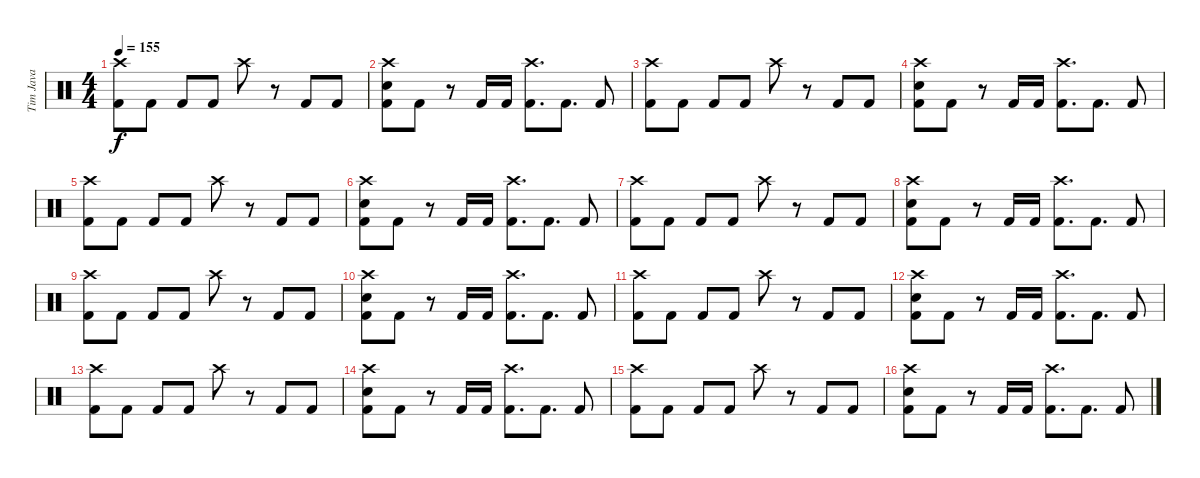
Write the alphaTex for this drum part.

\track ("Tim Java" "Tim Java") {instrument percussion}
\staff {score}
\articulation defaults
\ts (4 4)
\tempo 155
\clef neutral
\ks c
("Crash high (hit)" "Kick (hit) 2").8{dy f} "Kick (hit) 2".8 "Kick (hit) 2".8 "Kick (hit) 2".8 "Crash high (hit)".8 r.8 "Kick (hit) 2".8 "Kick (hit) 2".8 |
("Crash high (hit)" "Electric Snare (hit)" "Kick (hit) 2").8 "Kick (hit) 2".8 r.8 "Kick (hit) 2".16 "Kick (hit) 2".16 ("Crash high (hit)" "Kick (hit) 2").8{d} "Kick (hit) 2".8{d} "Kick (hit) 2".8 |
("Crash high (hit)" "Kick (hit) 2").8 "Kick (hit) 2".8 "Kick (hit) 2".8 "Kick (hit) 2".8 "Crash high (hit)".8 r.8 "Kick (hit) 2".8 "Kick (hit) 2".8 |
("Crash high (hit)" "Electric Snare (hit)" "Kick (hit) 2").8 "Kick (hit) 2".8 r.8 "Kick (hit) 2".16 "Kick (hit) 2".16 ("Crash high (hit)" "Kick (hit) 2").8{d} "Kick (hit) 2".8{d} "Kick (hit) 2".8 |
("Crash high (hit)" "Kick (hit) 2").8 "Kick (hit) 2".8 "Kick (hit) 2".8 "Kick (hit) 2".8 "Crash high (hit)".8 r.8 "Kick (hit) 2".8 "Kick (hit) 2".8 |
("Crash high (hit)" "Electric Snare (hit)" "Kick (hit) 2").8 "Kick (hit) 2".8 r.8 "Kick (hit) 2".16 "Kick (hit) 2".16 ("Crash high (hit)" "Kick (hit) 2").8{d} "Kick (hit) 2".8{d} "Kick (hit) 2".8 |
("Crash high (hit)" "Kick (hit) 2").8 "Kick (hit) 2".8 "Kick (hit) 2".8 "Kick (hit) 2".8 "Crash high (hit)".8 r.8 "Kick (hit) 2".8 "Kick (hit) 2".8 |
("Crash high (hit)" "Electric Snare (hit)" "Kick (hit) 2").8 "Kick (hit) 2".8 r.8 "Kick (hit) 2".16 "Kick (hit) 2".16 ("Crash high (hit)" "Kick (hit) 2").8{d} "Kick (hit) 2".8{d} "Kick (hit) 2".8 |
("Crash high (hit)" "Kick (hit) 2").8 "Kick (hit) 2".8 "Kick (hit) 2".8 "Kick (hit) 2".8 "Crash high (hit)".8 r.8 "Kick (hit) 2".8 "Kick (hit) 2".8 |
("Crash high (hit)" "Electric Snare (hit)" "Kick (hit) 2").8 "Kick (hit) 2".8 r.8 "Kick (hit) 2".16 "Kick (hit) 2".16 ("Crash high (hit)" "Kick (hit) 2").8{d} "Kick (hit) 2".8{d} "Kick (hit) 2".8 |
("Crash high (hit)" "Kick (hit) 2").8 "Kick (hit) 2".8 "Kick (hit) 2".8 "Kick (hit) 2".8 "Crash high (hit)".8 r.8 "Kick (hit) 2".8 "Kick (hit) 2".8 |
("Crash high (hit)" "Electric Snare (hit)" "Kick (hit) 2").8 "Kick (hit) 2".8 r.8 "Kick (hit) 2".16 "Kick (hit) 2".16 ("Crash high (hit)" "Kick (hit) 2").8{d} "Kick (hit) 2".8{d} "Kick (hit) 2".8 |
("Crash high (hit)" "Kick (hit) 2").8 "Kick (hit) 2".8 "Kick (hit) 2".8 "Kick (hit) 2".8 "Crash high (hit)".8 r.8 "Kick (hit) 2".8 "Kick (hit) 2".8 |
("Crash high (hit)" "Electric Snare (hit)" "Kick (hit) 2").8 "Kick (hit) 2".8 r.8 "Kick (hit) 2".16 "Kick (hit) 2".16 ("Crash high (hit)" "Kick (hit) 2").8{d} "Kick (hit) 2".8{d} "Kick (hit) 2".8 |
("Crash high (hit)" "Kick (hit) 2").8 "Kick (hit) 2".8 "Kick (hit) 2".8 "Kick (hit) 2".8 "Crash high (hit)".8 r.8 "Kick (hit) 2".8 "Kick (hit) 2".8 |
("Crash high (hit)" "Electric Snare (hit)" "Kick (hit) 2").8 "Kick (hit) 2".8 r.8 "Kick (hit) 2".16 "Kick (hit) 2".16 ("Crash high (hit)" "Kick (hit) 2").8{d} "Kick (hit) 2".8{d} "Kick (hit) 2".8
